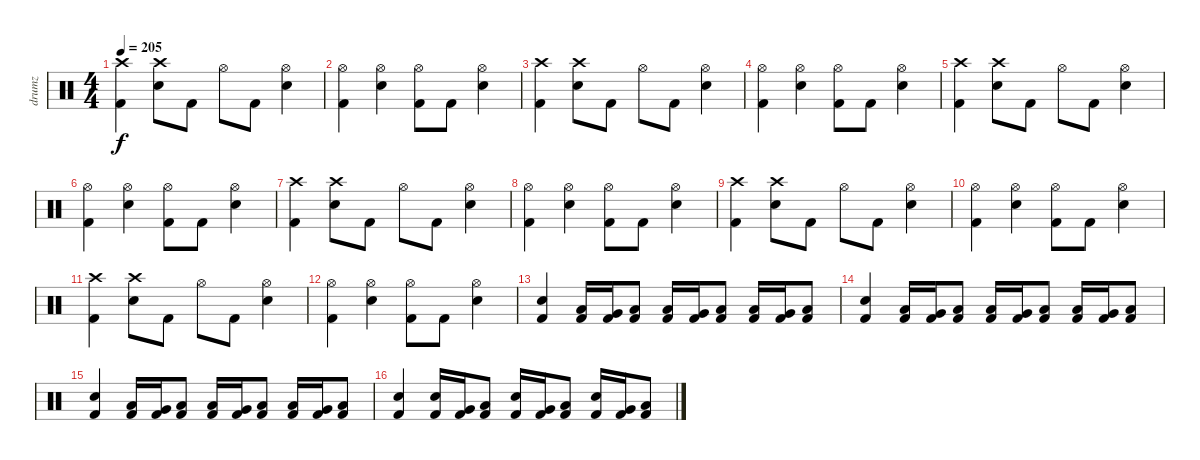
\track ("drumz" "drumz") {instrument percussion}
\staff {score}
\articulation defaults
\ts (4 4)
\tempo 205
\clef neutral
\ks c
("Crash high (hit)" "Kick (hit) 2").4{dy f} ("Crash high (hit)" "Electric Snare (hit)").8 "Kick (hit) 2".8 "Hi-Hat (open)".8 "Kick (hit) 2".8 ("Hi-Hat (open)" "Electric Snare (hit)").4 |
("Hi-Hat (open)" "Kick (hit) 2").4 ("Hi-Hat (open)" "Electric Snare (hit)").4 ("Hi-Hat (open)" "Kick (hit) 2").8 "Kick (hit) 2".8 ("Hi-Hat (open)" "Electric Snare (hit)").4 |
("Crash high (hit)" "Kick (hit) 2").4 ("Crash high (hit)" "Electric Snare (hit)").8 "Kick (hit) 2".8 "Hi-Hat (open)".8 "Kick (hit) 2".8 ("Hi-Hat (open)" "Electric Snare (hit)").4 |
("Hi-Hat (open)" "Kick (hit) 2").4 ("Hi-Hat (open)" "Electric Snare (hit)").4 ("Hi-Hat (open)" "Kick (hit) 2").8 "Kick (hit) 2".8 ("Hi-Hat (open)" "Electric Snare (hit)").4 |
("Crash high (hit)" "Kick (hit) 2").4 ("Crash high (hit)" "Electric Snare (hit)").8 "Kick (hit) 2".8 "Hi-Hat (open)".8 "Kick (hit) 2".8 ("Hi-Hat (open)" "Electric Snare (hit)").4 |
("Hi-Hat (open)" "Kick (hit) 2").4 ("Hi-Hat (open)" "Electric Snare (hit)").4 ("Hi-Hat (open)" "Kick (hit) 2").8 "Kick (hit) 2".8 ("Hi-Hat (open)" "Electric Snare (hit)").4 |
("Crash high (hit)" "Kick (hit) 2").4 ("Crash high (hit)" "Electric Snare (hit)").8 "Kick (hit) 2".8 "Hi-Hat (open)".8 "Kick (hit) 2".8 ("Hi-Hat (open)" "Electric Snare (hit)").4 |
("Hi-Hat (open)" "Kick (hit) 2").4 ("Hi-Hat (open)" "Electric Snare (hit)").4 ("Hi-Hat (open)" "Kick (hit) 2").8 "Kick (hit) 2".8 ("Hi-Hat (open)" "Electric Snare (hit)").4 |
("Crash high (hit)" "Kick (hit) 2").4 ("Crash high (hit)" "Electric Snare (hit)").8 "Kick (hit) 2".8 "Hi-Hat (open)".8 "Kick (hit) 2".8 ("Hi-Hat (open)" "Electric Snare (hit)").4 |
("Hi-Hat (open)" "Kick (hit) 2").4 ("Hi-Hat (open)" "Electric Snare (hit)").4 ("Hi-Hat (open)" "Kick (hit) 2").8 "Kick (hit) 2".8 ("Hi-Hat (open)" "Electric Snare (hit)").4 |
("Crash high (hit)" "Kick (hit) 2").4 ("Crash high (hit)" "Electric Snare (hit)").8 "Kick (hit) 2".8 "Hi-Hat (open)".8 "Kick (hit) 2".8 ("Hi-Hat (open)" "Electric Snare (hit)").4 |
("Hi-Hat (open)" "Kick (hit) 2").4 ("Hi-Hat (open)" "Electric Snare (hit)").4 ("Hi-Hat (open)" "Kick (hit) 2").8 "Kick (hit) 2".8 ("Hi-Hat (open)" "Electric Snare (hit)").4 |
("Electric Snare (hit)" "Kick (hit) 2").4 ("Low Tom (hit)" "Kick (hit) 2").16 ("Very Low Tom (hit)" "Kick (hit) 2").16 ("Low Floor Tom (hit)" "Kick (hit) 2").8 ("Low Tom (hit)" "Kick (hit) 2").16 ("Very Low Tom (hit)" "Kick (hit) 2").16 ("Low Floor Tom (hit)" "Kick (hit) 2").8 ("Low Tom (hit)" "Kick (hit) 2").16 ("Very Low Tom (hit)" "Kick (hit) 2").16 ("Low Floor Tom (hit)" "Kick (hit) 2").8 |
("Electric Snare (hit)" "Kick (hit) 2").4 ("Low Tom (hit)" "Kick (hit) 2").16 ("Very Low Tom (hit)" "Kick (hit) 2").16 ("Low Floor Tom (hit)" "Kick (hit) 2").8 ("Low Tom (hit)" "Kick (hit) 2").16 ("Very Low Tom (hit)" "Kick (hit) 2").16 ("Low Floor Tom (hit)" "Kick (hit) 2").8 ("Low Tom (hit)" "Kick (hit) 2").16 ("Very Low Tom (hit)" "Kick (hit) 2").16 ("Low Floor Tom (hit)" "Kick (hit) 2").8 |
("Electric Snare (hit)" "Kick (hit) 2").4 ("Low Tom (hit)" "Kick (hit) 2").16 ("Very Low Tom (hit)" "Kick (hit) 2").16 ("Low Floor Tom (hit)" "Kick (hit) 2").8 ("Low Tom (hit)" "Kick (hit) 2").16 ("Very Low Tom (hit)" "Kick (hit) 2").16 ("Low Floor Tom (hit)" "Kick (hit) 2").8 ("Low Tom (hit)" "Kick (hit) 2").16 ("Very Low Tom (hit)" "Kick (hit) 2").16 ("Low Floor Tom (hit)" "Kick (hit) 2").8 |
("Electric Snare (hit)" "Kick (hit) 2").4 ("Electric Snare (hit)" "Kick (hit) 2").16 ("Very Low Tom (hit)" "Kick (hit) 2").16 ("Low Floor Tom (hit)" "Kick (hit) 2").8 ("Electric Snare (hit)" "Kick (hit) 2").16 ("Very Low Tom (hit)" "Kick (hit) 2").16 ("Low Floor Tom (hit)" "Kick (hit) 2").8 ("Electric Snare (hit)" "Kick (hit) 2").16 ("Very Low Tom (hit)" "Kick (hit) 2").16 ("Low Floor Tom (hit)" "Kick (hit) 2").8
